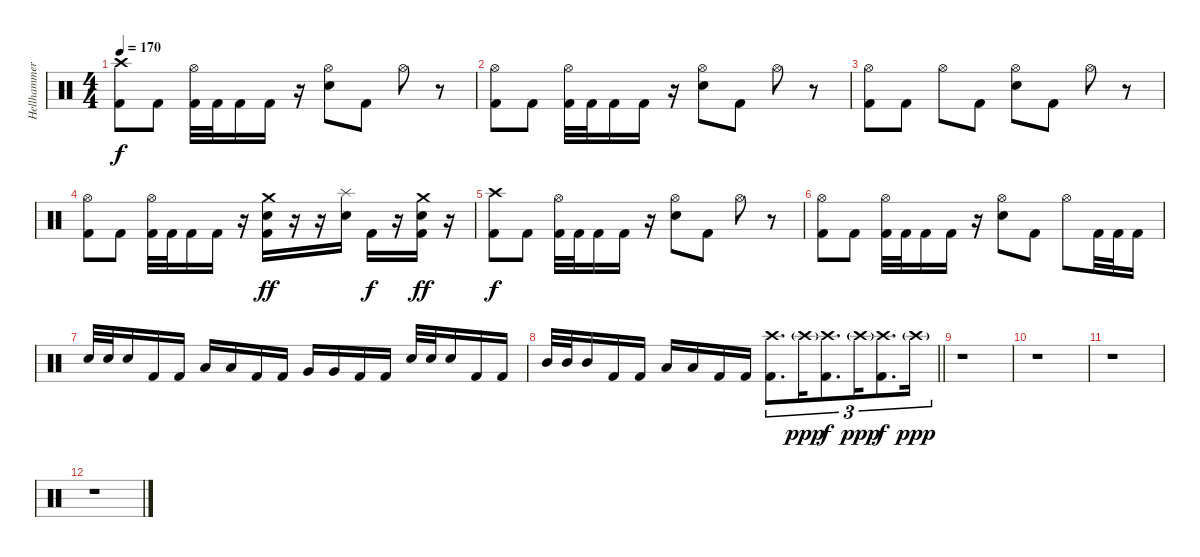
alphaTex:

\track ("Hellhammer" "Hellhammer") {instrument percussion}
\staff {score}
\articulation defaults
\ts (4 4)
\tempo 170
\clef neutral
\ks c
("Crash high (hit)" "Kick (hit) 2").8{dy f} "Kick (hit) 2".8 ("Hi-Hat (open)" "Kick (hit) 2").32 "Kick (hit) 2".32 "Kick (hit) 2".16 "Kick (hit) 2".16 r.16 ("Hi-Hat (open)" "Snare (hit) 2").8 "Kick (hit) 2".8 "Hi-Hat (open)".8 r.8 |
("Hi-Hat (open)" "Kick (hit) 2").8 "Kick (hit) 2".8 ("Hi-Hat (open)" "Kick (hit) 2").32 "Kick (hit) 2".32 "Kick (hit) 2".16 "Kick (hit) 2".16 r.16 ("Hi-Hat (open)" "Snare (hit) 2").8 "Kick (hit) 2".8 "Hi-Hat (open)".8 r.8 |
("Hi-Hat (open)" "Kick (hit) 2").8 "Kick (hit) 2".8 "Hi-Hat (open)".8 "Kick (hit) 2".8 ("Hi-Hat (open)" "Snare (hit) 2").8 "Kick (hit) 2".8 "Hi-Hat (open)".8 r.8 |
("Hi-Hat (open)" "Kick (hit) 2").8 "Kick (hit) 2".8 ("Hi-Hat (open)" "Kick (hit) 2").32 "Kick (hit) 2".32 "Kick (hit) 2".16 "Kick (hit) 2".16 r.16 ("Crash medium (hit)" "Snare (hit) 2" "Kick (hit) 2").16{dy ff} r.16 r.16 ("Splash (hit)" "Snare (hit) 2").16 "Kick (hit) 2".16{dy f} r.16 ("Crash medium (hit)" "Snare (hit) 2" "Kick (hit) 2").16{dy ff} r.16 |
("Crash high (hit)" "Kick (hit) 2").8{dy f} "Kick (hit) 2".8 ("Hi-Hat (open)" "Kick (hit) 2").32 "Kick (hit) 2".32 "Kick (hit) 2".16 "Kick (hit) 2".16 r.16 ("Hi-Hat (open)" "Snare (hit) 2").8 "Kick (hit) 2".8 "Hi-Hat (open)".8 r.8 |
("Hi-Hat (open)" "Kick (hit) 2").8 "Kick (hit) 2".8 ("Hi-Hat (open)" "Kick (hit) 2").32 "Kick (hit) 2".32 "Kick (hit) 2".16 "Kick (hit) 2".16 r.16 ("Hi-Hat (open)" "Snare (hit) 2").8 "Kick (hit) 2".8 "Hi-Hat (open)".8 "Kick (hit) 2".32 "Kick (hit) 2".32 "Kick (hit) 2".16 |
"Snare (hit) 2".32 "Snare (hit) 2".32 "Snare (hit) 2".16 "Kick (hit) 2".16 "Kick (hit) 2".16 "Low Tom (hit)".16 "Low Tom (hit)".16 "Kick (hit) 2".16 "Kick (hit) 2".16 "Very Low Tom (hit)".16 "Very Low Tom (hit)".16 "Kick (hit) 2".16 "Kick (hit) 2".16 "Snare (hit) 2".32 "Snare (hit) 2".32 "Snare (hit) 2".16 "Kick (hit) 2".16 "Kick (hit) 2".16 |
\barLineRight lightlight "Mid Tom (hit)".32 "Mid Tom (hit)".32 "Mid Tom (hit)".16 "Kick (hit) 2".16 "Kick (hit) 2".16 "Low Tom (hit)".16 "Low Tom (hit)".16 "Kick (hit) 2".16 "Kick (hit) 2".16
("Crash high (hit)" "Kick (hit) 2").8{d tu (3 2)} "Crash high (hit)"{g}.16{tu (3 2) dy ppp} ("Crash high (hit)" "Kick (hit) 2").8{d tu (3 2) dy f} "Crash high (hit)"{g}.16{tu (3 2) dy ppp} ("Crash high (hit)" "Kick (hit) 2").8{d tu (3 2) dy f} "Crash high (hit)"{g}.16{tu (3 2) dy ppp} |
r.1 |
r.1 |
r.1 |
r.1
